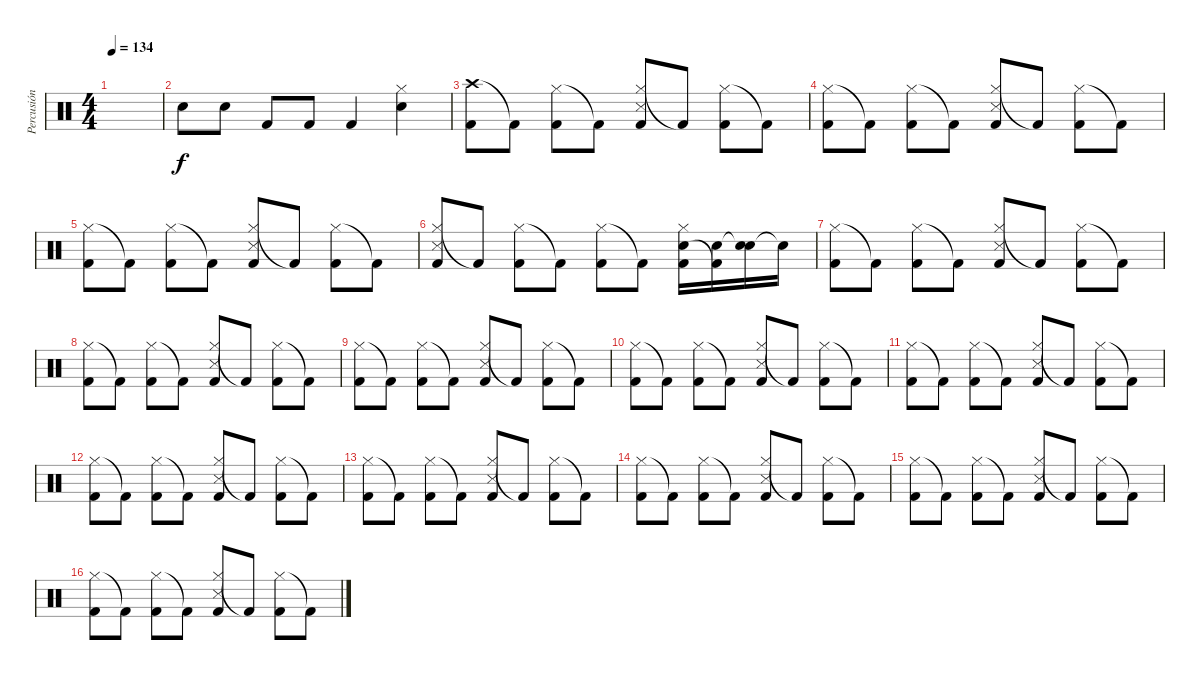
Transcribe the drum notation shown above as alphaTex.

\track ("Percusión" "Percusión") {instrument percussion}
\staff {score}
\articulation defaults
\ts (4 4)
\tempo 134
\clef neutral
\ks c
|
"Electric Snare (hit)".8 "Snare (hit) 2".8 "Kick (hit) 2".8 "Kick (hit) 2".8 "Kick (hit) 2".4 ("Hi-Hat (closed)" "Electric Snare (hit)").4 |
("Crash high (hit)" "Kick (hit) 2").8 "Kick (hit) 2"{t}.8 ("Hi-Hat (closed)" "Kick (hit) 2").8 "Kick (hit) 2"{t}.8 ("Hi-Hat (closed)" "Snare (side stick) 3" "Kick (hit) 2").8 "Kick (hit) 2"{t}.8 ("Hi-Hat (closed)" "Kick (hit) 2").8 "Kick (hit) 2"{t}.8 |
("Hi-Hat (closed)" "Kick (hit) 2").8 "Kick (hit) 2"{t}.8 ("Hi-Hat (closed)" "Kick (hit) 2").8 "Kick (hit) 2"{t}.8 ("Hi-Hat (closed)" "Snare (side stick) 3" "Kick (hit) 2").8 "Kick (hit) 2"{t}.8 ("Hi-Hat (closed)" "Kick (hit) 2").8 "Kick (hit) 2"{t}.8 |
("Hi-Hat (closed)" "Kick (hit) 2").8 "Kick (hit) 2"{t}.8 ("Hi-Hat (closed)" "Kick (hit) 2").8 "Kick (hit) 2"{t}.8 ("Hi-Hat (closed)" "Snare (side stick) 3" "Kick (hit) 2").8 "Kick (hit) 2"{t}.8 ("Hi-Hat (closed)" "Kick (hit) 2").8 "Kick (hit) 2"{t}.8 |
("Hi-Hat (closed)" "Snare (side stick) 3" "Kick (hit) 2").8 "Kick (hit) 2"{t}.8 ("Hi-Hat (closed)" "Kick (hit) 2").8 "Kick (hit) 2"{t}.8 ("Hi-Hat (closed)" "Kick (hit) 2").8 "Kick (hit) 2"{t}.8 ("Hi-Hat (closed)" "Electric Snare (hit)" "Kick (hit) 2").16 ("Electric Snare (hit)" "Kick (hit) 2"{t}).16 ("Snare (hit)"{t} "Electric Snare (hit)").16 "Snare (hit)"{t}.16 |
("Hi-Hat (closed)" "Kick (hit) 2").8 "Kick (hit) 2"{t}.8 ("Hi-Hat (closed)" "Kick (hit) 2").8 "Kick (hit) 2"{t}.8 ("Hi-Hat (closed)" "Snare (side stick) 3" "Kick (hit) 2").8 "Kick (hit) 2"{t}.8 ("Hi-Hat (closed)" "Kick (hit) 2").8 "Kick (hit) 2"{t}.8 |
("Hi-Hat (closed)" "Kick (hit) 2").8 "Kick (hit) 2"{t}.8 ("Hi-Hat (closed)" "Kick (hit) 2").8 "Kick (hit) 2"{t}.8 ("Hi-Hat (closed)" "Snare (side stick) 3" "Kick (hit) 2").8 "Kick (hit) 2"{t}.8 ("Hi-Hat (closed)" "Kick (hit) 2").8 "Kick (hit) 2"{t}.8 |
("Hi-Hat (closed)" "Kick (hit) 2").8 "Kick (hit) 2"{t}.8 ("Hi-Hat (closed)" "Kick (hit) 2").8 "Kick (hit) 2"{t}.8 ("Hi-Hat (closed)" "Snare (side stick) 3" "Kick (hit) 2").8 "Kick (hit) 2"{t}.8 ("Hi-Hat (closed)" "Kick (hit) 2").8 "Kick (hit) 2"{t}.8 |
("Hi-Hat (closed)" "Kick (hit) 2").8 "Kick (hit) 2"{t}.8 ("Hi-Hat (closed)" "Kick (hit) 2").8 "Kick (hit) 2"{t}.8 ("Hi-Hat (closed)" "Snare (side stick) 3" "Kick (hit) 2").8 "Kick (hit) 2"{t}.8 ("Hi-Hat (closed)" "Kick (hit) 2").8 "Kick (hit) 2"{t}.8 |
("Hi-Hat (closed)" "Kick (hit) 2").8 "Kick (hit) 2"{t}.8 ("Hi-Hat (closed)" "Kick (hit) 2").8 "Kick (hit) 2"{t}.8 ("Hi-Hat (closed)" "Snare (side stick) 3" "Kick (hit) 2").8 "Kick (hit) 2"{t}.8 ("Hi-Hat (closed)" "Kick (hit) 2").8 "Kick (hit) 2"{t}.8 |
("Hi-Hat (closed)" "Kick (hit) 2").8 "Kick (hit) 2"{t}.8 ("Hi-Hat (closed)" "Kick (hit) 2").8 "Kick (hit) 2"{t}.8 ("Hi-Hat (closed)" "Snare (side stick) 3" "Kick (hit) 2").8 "Kick (hit) 2"{t}.8 ("Hi-Hat (closed)" "Kick (hit) 2").8 "Kick (hit) 2"{t}.8 |
("Hi-Hat (closed)" "Kick (hit) 2").8 "Kick (hit) 2"{t}.8 ("Hi-Hat (closed)" "Kick (hit) 2").8 "Kick (hit) 2"{t}.8 ("Hi-Hat (closed)" "Snare (side stick) 3" "Kick (hit) 2").8 "Kick (hit) 2"{t}.8 ("Hi-Hat (closed)" "Kick (hit) 2").8 "Kick (hit) 2"{t}.8 |
("Hi-Hat (closed)" "Kick (hit) 2").8 "Kick (hit) 2"{t}.8 ("Hi-Hat (closed)" "Kick (hit) 2").8 "Kick (hit) 2"{t}.8 ("Hi-Hat (closed)" "Snare (side stick) 3" "Kick (hit) 2").8 "Kick (hit) 2"{t}.8 ("Hi-Hat (closed)" "Kick (hit) 2").8 "Kick (hit) 2"{t}.8 |
("Hi-Hat (closed)" "Kick (hit) 2").8 "Kick (hit) 2"{t}.8 ("Hi-Hat (closed)" "Kick (hit) 2").8 "Kick (hit) 2"{t}.8 ("Hi-Hat (closed)" "Snare (side stick) 3" "Kick (hit) 2").8 "Kick (hit) 2"{t}.8 ("Hi-Hat (closed)" "Kick (hit) 2").8 "Kick (hit) 2"{t}.8 |
("Hi-Hat (closed)" "Kick (hit) 2").8 "Kick (hit) 2"{t}.8 ("Hi-Hat (closed)" "Kick (hit) 2").8 "Kick (hit) 2"{t}.8 ("Hi-Hat (closed)" "Snare (side stick) 3" "Kick (hit) 2").8 "Kick (hit) 2"{t}.8 ("Hi-Hat (closed)" "Kick (hit) 2").8 "Kick (hit) 2"{t}.8
